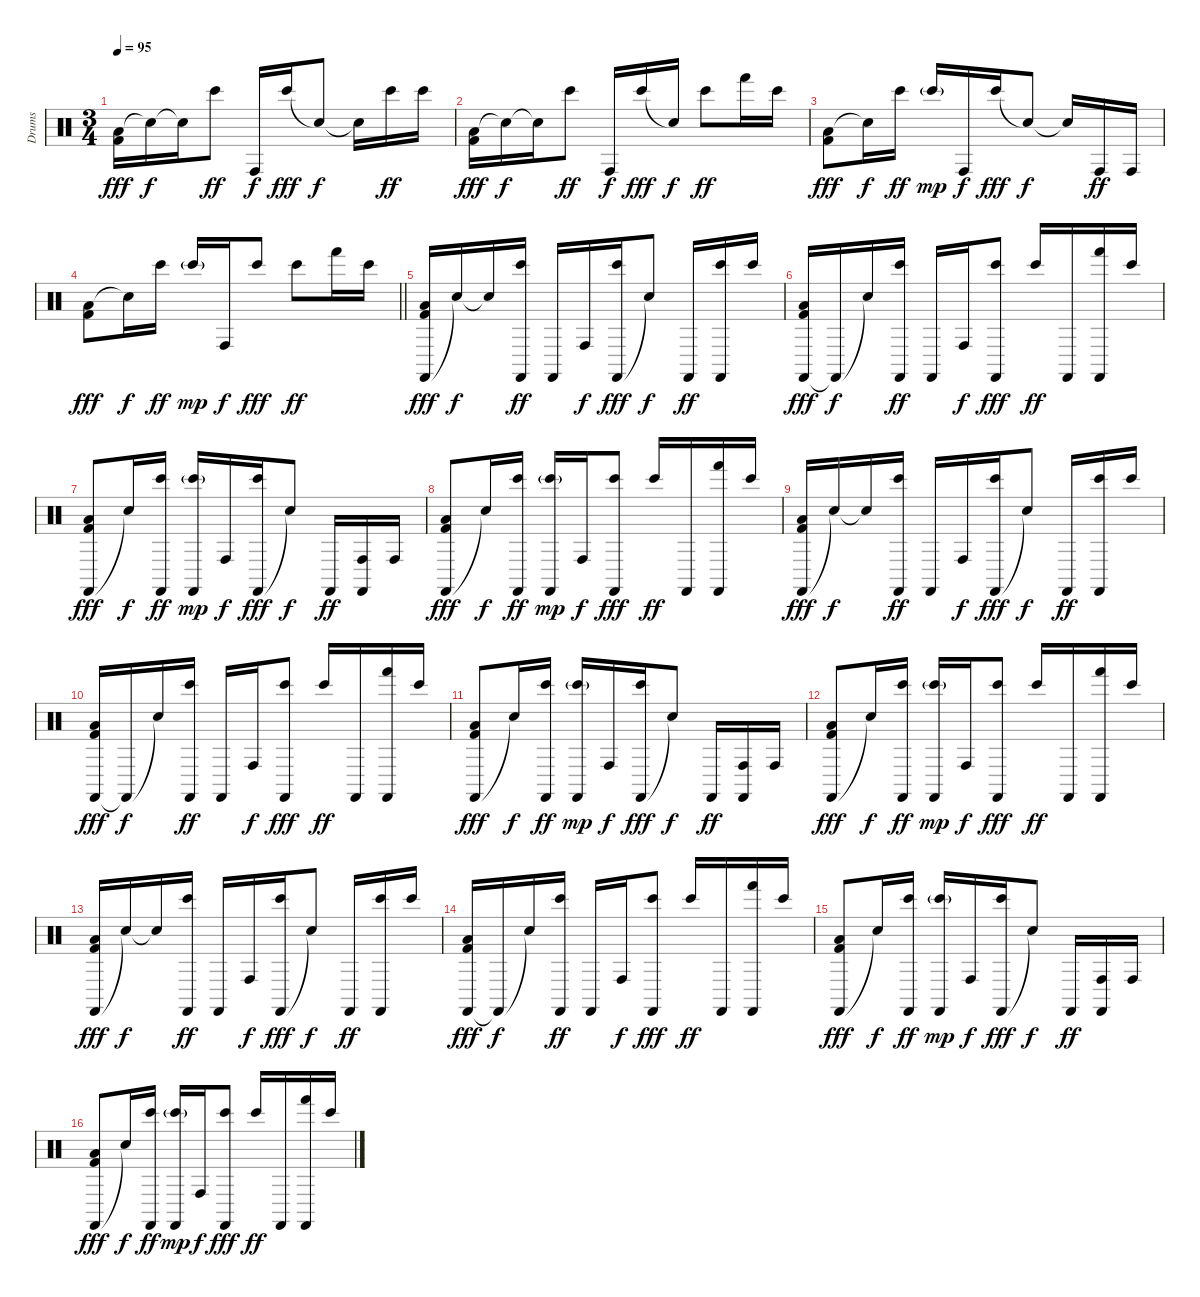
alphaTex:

\track ("Drums" "Drums") {instrument percussion}
\staff {score}
\articulation defaults
\ts (3 4)
\tempo 95
\clef neutral
\ks c
("Low Floor Tom (hit)" "Kick (hit) 2").16{dy fff} "Snare (hit)"{t}.16{dy f} "Snare (hit)"{t}.16 "Bongo High (hit)".8{dy ff} "Conga high (hit)".16{dy f} "Bongo High (hit)".16{dy fff} "Snare (hit)"{t}.8{dy f} "Snare (hit)"{t}.16 "Bongo High (hit)".16{dy ff} "Bongo High (hit)".16 |
("Low Floor Tom (hit)" "Kick (hit) 2").16{dy fff} "Snare (hit)"{t}.16{dy f} "Snare (hit)"{t}.16 "Bongo High (hit)".8{dy ff} "Conga high (hit)".16{dy f} "Bongo High (hit)".16{dy fff} "Snare (hit)"{t}.16{dy f} "Bongo High (hit)".8{dy ff} "Hand (hit)".16 "Bongo High (hit)".16 |
("Low Floor Tom (hit)" "Kick (hit) 2").8{dy fff} "Snare (hit)"{t}.16{dy f} "Bongo High (hit)".16{dy ff} "Bongo High (hit)"{g}.16{dy mp} "Conga high (hit)".16{dy f} "Bongo High (hit)".16{dy fff} "Snare (hit)"{t}.8{dy f} "Snare (hit)"{t}.16 "Conga high (hit)".16{dy ff} "Conga high (hit)".16 |
\barLineRight lightlight
("Low Floor Tom (hit)" "Kick (hit) 2").8{dy fff} "Snare (hit)"{t}.16{dy f} "Bongo High (hit)".16{dy ff} "Bongo High (hit)"{g}.16{dy mp} "Conga high (hit)".16{dy f} "Bongo High (hit)".8{dy fff} "Bongo High (hit)".8{dy ff} "Hand (hit)".16 "Bongo High (hit)".16 |
\section ("" "")
("Castanets (hit)" "Low Floor Tom (hit)" "Kick (hit) 2").16{dy fff} "Snare (hit)"{t}.16{dy f} "Snare (hit)"{t}.16 ("Castanets (hit)" "Bongo High (hit)").16{dy ff} "Castanets (hit)".16 "Conga high (hit)".16{dy f} ("Castanets (hit)" "Bongo High (hit)").16{dy fff} "Snare (hit)"{t}.8{dy f} "Castanets (hit)".16{dy ff} ("Castanets (hit)" "Bongo High (hit)").16 "Bongo High (hit)".16 |
("Castanets (hit)" "Low Floor Tom (hit)" "Kick (hit) 2").16{dy fff} "Castanets (hit)"{t}.16{dy f} "Snare (hit)"{t}.16 ("Castanets (hit)" "Bongo High (hit)").16{dy ff} "Castanets (hit)".16 "Conga high (hit)".16{dy f} ("Castanets (hit)" "Bongo High (hit)").8{dy fff} "Bongo High (hit)".16{dy ff} "Castanets (hit)".16 ("Castanets (hit)" "Hand (hit)").16 "Bongo High (hit)".16 |
("Castanets (hit)" "Low Floor Tom (hit)" "Kick (hit) 2").8{dy fff} "Snare (hit)"{t}.16{dy f} ("Castanets (hit)" "Bongo High (hit)").16{dy ff} ("Castanets (hit)" "Bongo High (hit)"{g}).16{dy mp} "Conga high (hit)".16{dy f} ("Castanets (hit)" "Bongo High (hit)").16{dy fff} "Snare (hit)"{t}.8{dy f} "Castanets (hit)".16{dy ff} ("Castanets (hit)" "Conga high (hit)").16 "Conga high (hit)".16 |
("Castanets (hit)" "Low Floor Tom (hit)" "Kick (hit) 2").8{dy fff} "Snare (hit)"{t}.16{dy f} ("Castanets (hit)" "Bongo High (hit)").16{dy ff} ("Castanets (hit)" "Bongo High (hit)"{g}).16{dy mp} "Conga high (hit)".16{dy f} ("Castanets (hit)" "Bongo High (hit)").8{dy fff} "Bongo High (hit)".16{dy ff} "Castanets (hit)".16 ("Castanets (hit)" "Hand (hit)").16 "Bongo High (hit)".16 |
("Castanets (hit)" "Low Floor Tom (hit)" "Kick (hit) 2").16{dy fff} "Snare (hit)"{t}.16{dy f} "Snare (hit)"{t}.16 ("Castanets (hit)" "Bongo High (hit)").16{dy ff} "Castanets (hit)".16 "Conga high (hit)".16{dy f} ("Castanets (hit)" "Bongo High (hit)").16{dy fff} "Snare (hit)"{t}.8{dy f} "Castanets (hit)".16{dy ff} ("Castanets (hit)" "Bongo High (hit)").16 "Bongo High (hit)".16 |
("Castanets (hit)" "Low Floor Tom (hit)" "Kick (hit) 2").16{dy fff} "Castanets (hit)"{t}.16{dy f} "Snare (hit)"{t}.16 ("Castanets (hit)" "Bongo High (hit)").16{dy ff} "Castanets (hit)".16 "Conga high (hit)".16{dy f} ("Castanets (hit)" "Bongo High (hit)").8{dy fff} "Bongo High (hit)".16{dy ff} "Castanets (hit)".16 ("Castanets (hit)" "Hand (hit)").16 "Bongo High (hit)".16 |
("Castanets (hit)" "Low Floor Tom (hit)" "Kick (hit) 2").8{dy fff} "Snare (hit)"{t}.16{dy f} ("Castanets (hit)" "Bongo High (hit)").16{dy ff} ("Castanets (hit)" "Bongo High (hit)"{g}).16{dy mp} "Conga high (hit)".16{dy f} ("Castanets (hit)" "Bongo High (hit)").16{dy fff} "Snare (hit)"{t}.8{dy f} "Castanets (hit)".16{dy ff} ("Castanets (hit)" "Conga high (hit)").16 "Conga high (hit)".16 |
("Castanets (hit)" "Low Floor Tom (hit)" "Kick (hit) 2").8{dy fff} "Snare (hit)"{t}.16{dy f} ("Castanets (hit)" "Bongo High (hit)").16{dy ff} ("Castanets (hit)" "Bongo High (hit)"{g}).16{dy mp} "Conga high (hit)".16{dy f} ("Castanets (hit)" "Bongo High (hit)").8{dy fff} "Bongo High (hit)".16{dy ff} "Castanets (hit)".16 ("Castanets (hit)" "Hand (hit)").16 "Bongo High (hit)".16 |
("Castanets (hit)" "Low Floor Tom (hit)" "Kick (hit) 2").16{dy fff} "Snare (hit)"{t}.16{dy f} "Snare (hit)"{t}.16 ("Castanets (hit)" "Bongo High (hit)").16{dy ff} "Castanets (hit)".16 "Conga high (hit)".16{dy f} ("Castanets (hit)" "Bongo High (hit)").16{dy fff} "Snare (hit)"{t}.8{dy f} "Castanets (hit)".16{dy ff} ("Castanets (hit)" "Bongo High (hit)").16 "Bongo High (hit)".16 |
("Castanets (hit)" "Low Floor Tom (hit)" "Kick (hit) 2").16{dy fff} "Castanets (hit)"{t}.16{dy f} "Snare (hit)"{t}.16 ("Castanets (hit)" "Bongo High (hit)").16{dy ff} "Castanets (hit)".16 "Conga high (hit)".16{dy f} ("Castanets (hit)" "Bongo High (hit)").8{dy fff} "Bongo High (hit)".16{dy ff} "Castanets (hit)".16 ("Castanets (hit)" "Hand (hit)").16 "Bongo High (hit)".16 |
("Castanets (hit)" "Low Floor Tom (hit)" "Kick (hit) 2").8{dy fff} "Snare (hit)"{t}.16{dy f} ("Castanets (hit)" "Bongo High (hit)").16{dy ff} ("Castanets (hit)" "Bongo High (hit)"{g}).16{dy mp} "Conga high (hit)".16{dy f} ("Castanets (hit)" "Bongo High (hit)").16{dy fff} "Snare (hit)"{t}.8{dy f} "Castanets (hit)".16{dy ff} ("Castanets (hit)" "Conga high (hit)").16 "Conga high (hit)".16 |
("Castanets (hit)" "Low Floor Tom (hit)" "Kick (hit) 2").8{dy fff} "Snare (hit)"{t}.16{dy f} ("Castanets (hit)" "Bongo High (hit)").16{dy ff} ("Castanets (hit)" "Bongo High (hit)"{g}).16{dy mp} "Conga high (hit)".16{dy f} ("Castanets (hit)" "Bongo High (hit)").8{dy fff} "Bongo High (hit)".16{dy ff} "Castanets (hit)".16 ("Castanets (hit)" "Hand (hit)").16 "Bongo High (hit)".16
